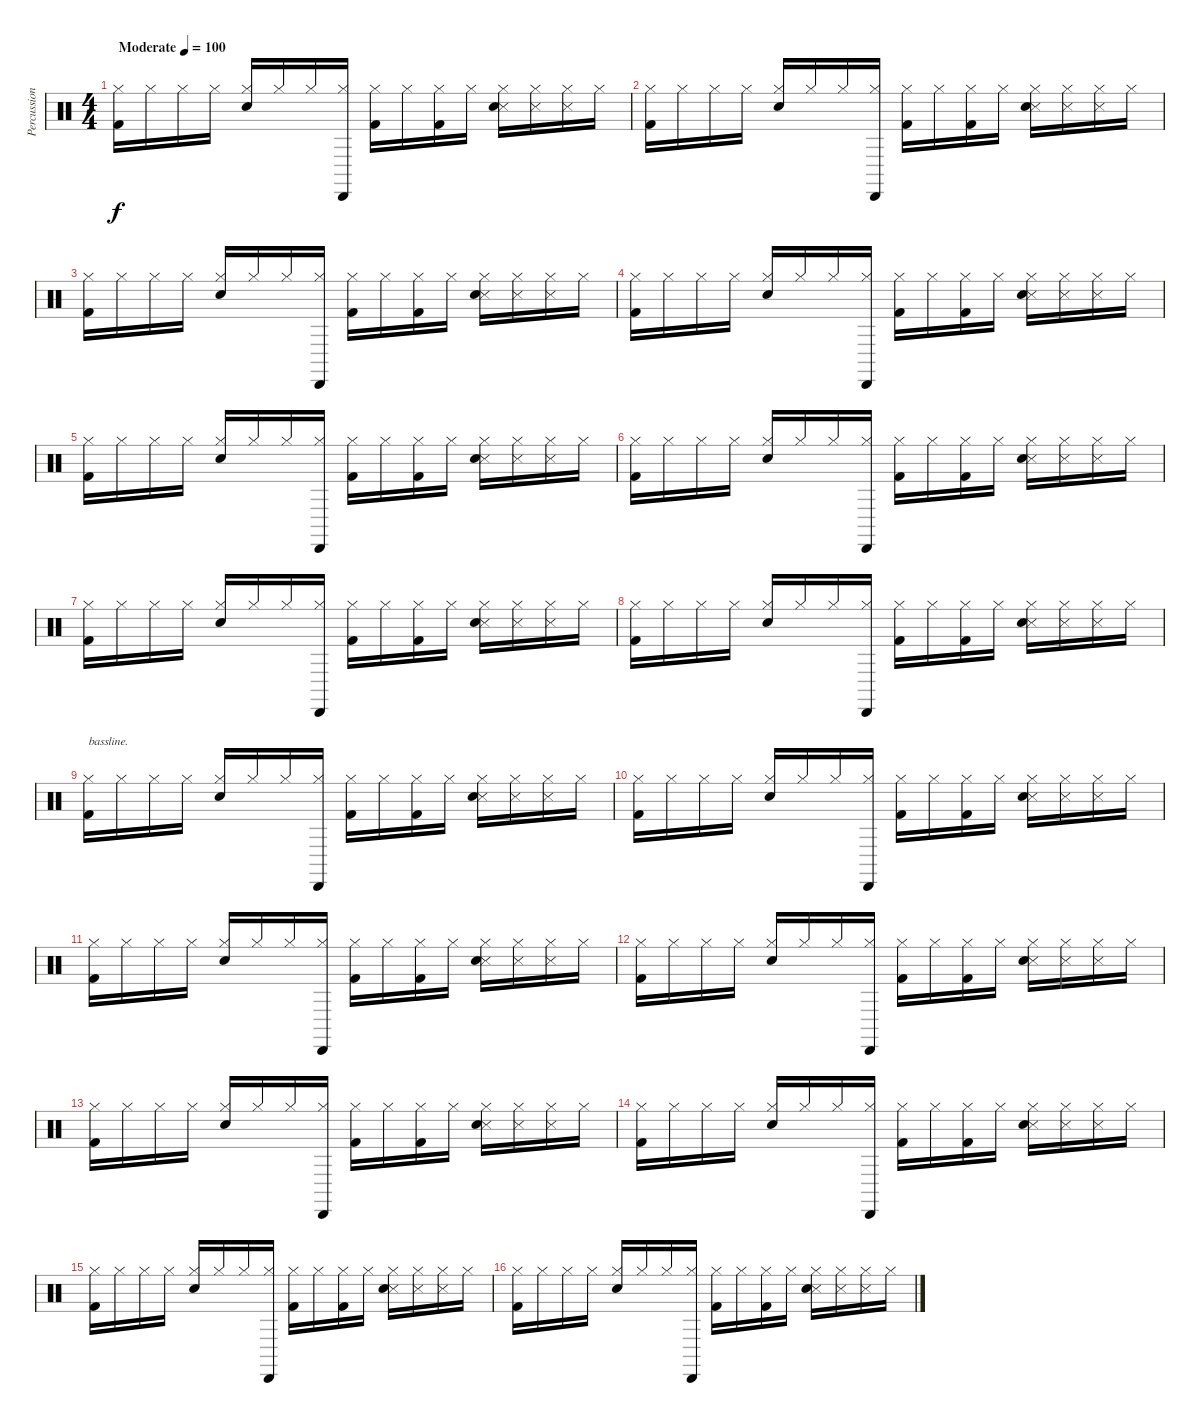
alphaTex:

\track ("Percussion" "Percussion") {instrument percussion}
\staff {score}
\articulation defaults
\ts (4 4)
\tempo (100 "Moderate")
\clef neutral
\ks c
("Hi-Hat (closed)" "Kick (hit) 2").16{dy f} "Hi-Hat (closed)".16 "Hi-Hat (closed)".16 "Hi-Hat (closed)".16 ("Hi-Hat (closed)" "Snare (hit) 2").16 "Hi-Hat (closed)".16 "Hi-Hat (closed)".16 ("Cabasa (hit)" "Hi-Hat (closed)").16 ("Hi-Hat (closed)" "Kick (hit) 2").16 "Hi-Hat (closed)".16 ("Hi-Hat (closed)" "Kick (hit) 2").16 "Hi-Hat (closed)".16 ("Metronome (hit)" "Hi-Hat (closed)" "Snare (hit) 2").16 ("Metronome (hit)" "Hi-Hat (closed)").16 ("Metronome (hit)" "Hi-Hat (closed)").16 "Hi-Hat (closed)".16 |
("Hi-Hat (closed)" "Kick (hit) 2").16 "Hi-Hat (closed)".16 "Hi-Hat (closed)".16 "Hi-Hat (closed)".16 ("Hi-Hat (closed)" "Snare (hit) 2").16 "Hi-Hat (closed)".16 "Hi-Hat (closed)".16 ("Cabasa (hit)" "Hi-Hat (closed)").16 ("Hi-Hat (closed)" "Kick (hit) 2").16 "Hi-Hat (closed)".16 ("Hi-Hat (closed)" "Kick (hit) 2").16 "Hi-Hat (closed)".16 ("Metronome (hit)" "Hi-Hat (closed)" "Snare (hit) 2").16 ("Metronome (hit)" "Hi-Hat (closed)").16 ("Metronome (hit)" "Hi-Hat (closed)").16 "Hi-Hat (closed)".16 |
("Hi-Hat (closed)" "Kick (hit) 2").16 "Hi-Hat (closed)".16 "Hi-Hat (closed)".16 "Hi-Hat (closed)".16 ("Hi-Hat (closed)" "Snare (hit) 2").16 "Hi-Hat (closed)".16 "Hi-Hat (closed)".16 ("Cabasa (hit)" "Hi-Hat (closed)").16 ("Hi-Hat (closed)" "Kick (hit) 2").16 "Hi-Hat (closed)".16 ("Hi-Hat (closed)" "Kick (hit) 2").16 "Hi-Hat (closed)".16 ("Metronome (hit)" "Hi-Hat (closed)" "Snare (hit) 2").16 ("Metronome (hit)" "Hi-Hat (closed)").16 ("Metronome (hit)" "Hi-Hat (closed)").16 "Hi-Hat (closed)".16 |
("Hi-Hat (closed)" "Kick (hit) 2").16 "Hi-Hat (closed)".16 "Hi-Hat (closed)".16 "Hi-Hat (closed)".16 ("Hi-Hat (closed)" "Snare (hit) 2").16 "Hi-Hat (closed)".16 "Hi-Hat (closed)".16 ("Cabasa (hit)" "Hi-Hat (closed)").16 ("Hi-Hat (closed)" "Kick (hit) 2").16 "Hi-Hat (closed)".16 ("Hi-Hat (closed)" "Kick (hit) 2").16 "Hi-Hat (closed)".16 ("Metronome (hit)" "Hi-Hat (closed)" "Snare (hit) 2").16 ("Metronome (hit)" "Hi-Hat (closed)").16 ("Metronome (hit)" "Hi-Hat (closed)").16 "Hi-Hat (closed)".16 |
("Hi-Hat (closed)" "Kick (hit) 2").16 "Hi-Hat (closed)".16 "Hi-Hat (closed)".16 "Hi-Hat (closed)".16 ("Hi-Hat (closed)" "Snare (hit) 2").16 "Hi-Hat (closed)".16 "Hi-Hat (closed)".16 ("Cabasa (hit)" "Hi-Hat (closed)").16 ("Hi-Hat (closed)" "Kick (hit) 2").16 "Hi-Hat (closed)".16 ("Hi-Hat (closed)" "Kick (hit) 2").16 "Hi-Hat (closed)".16 ("Metronome (hit)" "Hi-Hat (closed)" "Snare (hit) 2").16 ("Metronome (hit)" "Hi-Hat (closed)").16 ("Metronome (hit)" "Hi-Hat (closed)").16 "Hi-Hat (closed)".16 |
("Hi-Hat (closed)" "Kick (hit) 2").16 "Hi-Hat (closed)".16 "Hi-Hat (closed)".16 "Hi-Hat (closed)".16 ("Hi-Hat (closed)" "Snare (hit) 2").16 "Hi-Hat (closed)".16 "Hi-Hat (closed)".16 ("Cabasa (hit)" "Hi-Hat (closed)").16 ("Hi-Hat (closed)" "Kick (hit) 2").16 "Hi-Hat (closed)".16 ("Hi-Hat (closed)" "Kick (hit) 2").16 "Hi-Hat (closed)".16 ("Metronome (hit)" "Hi-Hat (closed)" "Snare (hit) 2").16 ("Metronome (hit)" "Hi-Hat (closed)").16 ("Metronome (hit)" "Hi-Hat (closed)").16 "Hi-Hat (closed)".16 |
("Hi-Hat (closed)" "Kick (hit) 2").16 "Hi-Hat (closed)".16 "Hi-Hat (closed)".16 "Hi-Hat (closed)".16 ("Hi-Hat (closed)" "Snare (hit) 2").16 "Hi-Hat (closed)".16 "Hi-Hat (closed)".16 ("Cabasa (hit)" "Hi-Hat (closed)").16 ("Hi-Hat (closed)" "Kick (hit) 2").16 "Hi-Hat (closed)".16 ("Hi-Hat (closed)" "Kick (hit) 2").16 "Hi-Hat (closed)".16 ("Metronome (hit)" "Hi-Hat (closed)" "Snare (hit) 2").16 ("Metronome (hit)" "Hi-Hat (closed)").16 ("Metronome (hit)" "Hi-Hat (closed)").16 "Hi-Hat (closed)".16 |
("Hi-Hat (closed)" "Kick (hit) 2").16 "Hi-Hat (closed)".16 "Hi-Hat (closed)".16 "Hi-Hat (closed)".16 ("Hi-Hat (closed)" "Snare (hit) 2").16 "Hi-Hat (closed)".16 "Hi-Hat (closed)".16 ("Cabasa (hit)" "Hi-Hat (closed)").16 ("Hi-Hat (closed)" "Kick (hit) 2").16 "Hi-Hat (closed)".16 ("Hi-Hat (closed)" "Kick (hit) 2").16 "Hi-Hat (closed)".16 ("Metronome (hit)" "Hi-Hat (closed)" "Snare (hit) 2").16 ("Metronome (hit)" "Hi-Hat (closed)").16 ("Metronome (hit)" "Hi-Hat (closed)").16 "Hi-Hat (closed)".16 |
("Hi-Hat (closed)" "Kick (hit) 2").16{txt "bassline."} "Hi-Hat (closed)".16 "Hi-Hat (closed)".16 "Hi-Hat (closed)".16 ("Hi-Hat (closed)" "Snare (hit) 2").16 "Hi-Hat (closed)".16 "Hi-Hat (closed)".16 ("Cabasa (hit)" "Hi-Hat (closed)").16 ("Hi-Hat (closed)" "Kick (hit) 2").16 "Hi-Hat (closed)".16 ("Hi-Hat (closed)" "Kick (hit) 2").16 "Hi-Hat (closed)".16 ("Metronome (hit)" "Hi-Hat (closed)" "Snare (hit) 2").16 ("Metronome (hit)" "Hi-Hat (closed)").16 ("Metronome (hit)" "Hi-Hat (closed)").16 "Hi-Hat (closed)".16 |
("Hi-Hat (closed)" "Kick (hit) 2").16 "Hi-Hat (closed)".16 "Hi-Hat (closed)".16 "Hi-Hat (closed)".16 ("Hi-Hat (closed)" "Snare (hit) 2").16 "Hi-Hat (closed)".16 "Hi-Hat (closed)".16 ("Cabasa (hit)" "Hi-Hat (closed)").16 ("Hi-Hat (closed)" "Kick (hit) 2").16 "Hi-Hat (closed)".16 ("Hi-Hat (closed)" "Kick (hit) 2").16 "Hi-Hat (closed)".16 ("Metronome (hit)" "Hi-Hat (closed)" "Snare (hit) 2").16 ("Metronome (hit)" "Hi-Hat (closed)").16 ("Metronome (hit)" "Hi-Hat (closed)").16 "Hi-Hat (closed)".16 |
("Hi-Hat (closed)" "Kick (hit) 2").16 "Hi-Hat (closed)".16 "Hi-Hat (closed)".16 "Hi-Hat (closed)".16 ("Hi-Hat (closed)" "Snare (hit) 2").16 "Hi-Hat (closed)".16 "Hi-Hat (closed)".16 ("Cabasa (hit)" "Hi-Hat (closed)").16 ("Hi-Hat (closed)" "Kick (hit) 2").16 "Hi-Hat (closed)".16 ("Hi-Hat (closed)" "Kick (hit) 2").16 "Hi-Hat (closed)".16 ("Metronome (hit)" "Hi-Hat (closed)" "Snare (hit) 2").16 ("Metronome (hit)" "Hi-Hat (closed)").16 ("Metronome (hit)" "Hi-Hat (closed)").16 "Hi-Hat (closed)".16 |
("Hi-Hat (closed)" "Kick (hit) 2").16 "Hi-Hat (closed)".16 "Hi-Hat (closed)".16 "Hi-Hat (closed)".16 ("Hi-Hat (closed)" "Snare (hit) 2").16 "Hi-Hat (closed)".16 "Hi-Hat (closed)".16 ("Cabasa (hit)" "Hi-Hat (closed)").16 ("Hi-Hat (closed)" "Kick (hit) 2").16 "Hi-Hat (closed)".16 ("Hi-Hat (closed)" "Kick (hit) 2").16 "Hi-Hat (closed)".16 ("Metronome (hit)" "Hi-Hat (closed)" "Snare (hit) 2").16 ("Metronome (hit)" "Hi-Hat (closed)").16 ("Metronome (hit)" "Hi-Hat (closed)").16 "Hi-Hat (closed)".16 |
("Hi-Hat (closed)" "Kick (hit) 2").16 "Hi-Hat (closed)".16 "Hi-Hat (closed)".16 "Hi-Hat (closed)".16 ("Hi-Hat (closed)" "Snare (hit) 2").16 "Hi-Hat (closed)".16 "Hi-Hat (closed)".16 ("Cabasa (hit)" "Hi-Hat (closed)").16 ("Hi-Hat (closed)" "Kick (hit) 2").16 "Hi-Hat (closed)".16 ("Hi-Hat (closed)" "Kick (hit) 2").16 "Hi-Hat (closed)".16 ("Metronome (hit)" "Hi-Hat (closed)" "Snare (hit) 2").16 ("Metronome (hit)" "Hi-Hat (closed)").16 ("Metronome (hit)" "Hi-Hat (closed)").16 "Hi-Hat (closed)".16 |
("Hi-Hat (closed)" "Kick (hit) 2").16 "Hi-Hat (closed)".16 "Hi-Hat (closed)".16 "Hi-Hat (closed)".16 ("Hi-Hat (closed)" "Snare (hit) 2").16 "Hi-Hat (closed)".16 "Hi-Hat (closed)".16 ("Cabasa (hit)" "Hi-Hat (closed)").16 ("Hi-Hat (closed)" "Kick (hit) 2").16 "Hi-Hat (closed)".16 ("Hi-Hat (closed)" "Kick (hit) 2").16 "Hi-Hat (closed)".16 ("Metronome (hit)" "Hi-Hat (closed)" "Snare (hit) 2").16 ("Metronome (hit)" "Hi-Hat (closed)").16 ("Metronome (hit)" "Hi-Hat (closed)").16 "Hi-Hat (closed)".16 |
("Hi-Hat (closed)" "Kick (hit) 2").16 "Hi-Hat (closed)".16 "Hi-Hat (closed)".16 "Hi-Hat (closed)".16 ("Hi-Hat (closed)" "Snare (hit) 2").16 "Hi-Hat (closed)".16 "Hi-Hat (closed)".16 ("Cabasa (hit)" "Hi-Hat (closed)").16 ("Hi-Hat (closed)" "Kick (hit) 2").16 "Hi-Hat (closed)".16 ("Hi-Hat (closed)" "Kick (hit) 2").16 "Hi-Hat (closed)".16 ("Metronome (hit)" "Hi-Hat (closed)" "Snare (hit) 2").16 ("Metronome (hit)" "Hi-Hat (closed)").16 ("Metronome (hit)" "Hi-Hat (closed)").16 "Hi-Hat (closed)".16 |
("Hi-Hat (closed)" "Kick (hit) 2").16 "Hi-Hat (closed)".16 "Hi-Hat (closed)".16 "Hi-Hat (closed)".16 ("Hi-Hat (closed)" "Snare (hit) 2").16 "Hi-Hat (closed)".16 "Hi-Hat (closed)".16 ("Cabasa (hit)" "Hi-Hat (closed)").16 ("Hi-Hat (closed)" "Kick (hit) 2").16 "Hi-Hat (closed)".16 ("Hi-Hat (closed)" "Kick (hit) 2").16 "Hi-Hat (closed)".16 ("Metronome (hit)" "Hi-Hat (closed)" "Snare (hit) 2").16 ("Metronome (hit)" "Hi-Hat (closed)").16 ("Metronome (hit)" "Hi-Hat (closed)").16 "Hi-Hat (closed)".16
